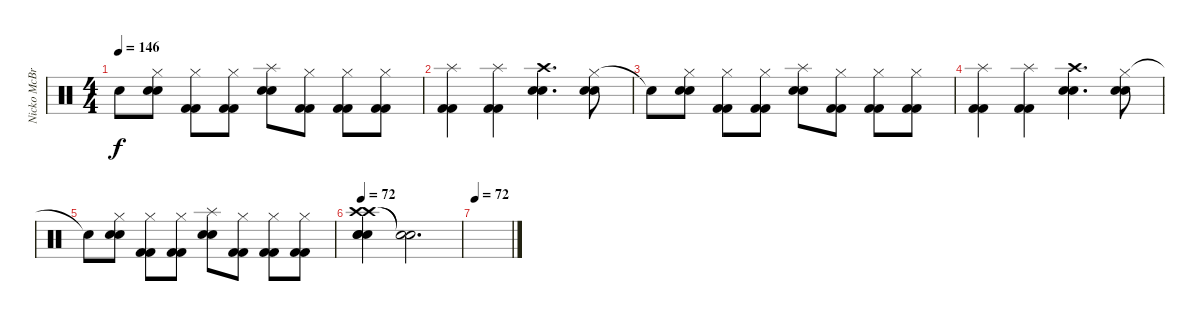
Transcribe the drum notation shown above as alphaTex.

\track ("Nicko McBrain" "Nicko McBr") {instrument percussion}
\staff {score}
\articulation defaults
\ts (4 4)
\tempo 146
\clef neutral
\ks c "Snare (hit) 2"{t}.8{dy f}
("Hi-Hat (closed)" "Snare (hit) 2" "Snare (hit) 2").8 ("Hi-Hat (closed)" "Kick (hit) 2" "Kick (hit) 2").8 ("Hi-Hat (closed)" "Kick (hit) 2" "Kick (hit) 2").8 ("Splash (hit)" "Snare (hit) 2" "Snare (hit) 2").8 ("Hi-Hat (closed)" "Kick (hit) 2" "Kick (hit) 2").8 ("Hi-Hat (closed)" "Kick (hit) 2" "Kick (hit) 2").8 ("Hi-Hat (closed)" "Kick (hit) 2" "Kick (hit) 2").8 |
("Splash (hit)" "Kick (hit) 2" "Kick (hit) 2").4 ("Splash (hit)" "Kick (hit) 2" "Kick (hit) 2").4 ("Crash high (hit)" "Snare (hit) 2" "Snare (hit) 2").4{d} ("Hi-Hat (closed)" "Snare (hit) 2" "Snare (hit) 2").8 |
"Snare (hit) 2"{t}.8 ("Hi-Hat (closed)" "Snare (hit) 2" "Snare (hit) 2").8 ("Hi-Hat (closed)" "Kick (hit) 2" "Kick (hit) 2").8 ("Hi-Hat (closed)" "Kick (hit) 2" "Kick (hit) 2").8 ("Splash (hit)" "Snare (hit) 2" "Snare (hit) 2").8 ("Hi-Hat (closed)" "Kick (hit) 2" "Kick (hit) 2").8 ("Hi-Hat (closed)" "Kick (hit) 2" "Kick (hit) 2").8 ("Hi-Hat (closed)" "Kick (hit) 2" "Kick (hit) 2").8 |
("Splash (hit)" "Kick (hit) 2" "Kick (hit) 2").4 ("Splash (hit)" "Kick (hit) 2" "Kick (hit) 2").4 ("Crash high (hit)" "Snare (hit) 2" "Snare (hit) 2").4{d} ("Hi-Hat (closed)" "Snare (hit) 2" "Snare (hit) 2").8 |
"Snare (hit) 2"{t}.8 ("Hi-Hat (closed)" "Snare (hit) 2" "Snare (hit) 2").8 ("Hi-Hat (closed)" "Kick (hit) 2" "Kick (hit) 2").8 ("Hi-Hat (closed)" "Kick (hit) 2" "Kick (hit) 2").8 ("Splash (hit)" "Snare (hit) 2" "Snare (hit) 2").8 ("Hi-Hat (closed)" "Kick (hit) 2" "Kick (hit) 2").8 ("Hi-Hat (closed)" "Kick (hit) 2" "Kick (hit) 2").8 ("Hi-Hat (closed)" "Kick (hit) 2" "Kick (hit) 2").8 |
\tempo 72
("Crash high (hit)" "Crash high (hit)" "Snare (hit) 2" "Snare (hit) 2" "Snare (hit) 2").4 ("Snare (hit)"{t} "Snare (hit)"{t}).2{d} |
\tempo 72
